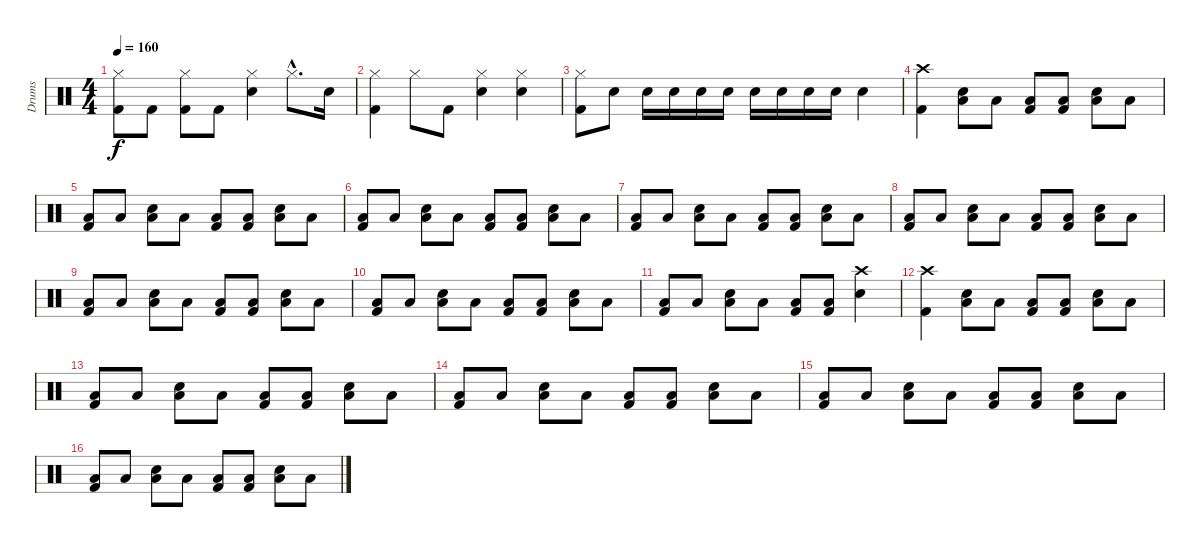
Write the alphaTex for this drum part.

\track ("Drums" "Drums") {instrument percussion}
\staff {score}
\articulation defaults
\ts (4 4)
\tempo 160
\clef neutral
\ks c
("Hi-Hat (closed)" "Kick (hit) 2").8{dy f} "Kick (hit) 2".8 ("Hi-Hat (closed)" "Kick (hit) 2").8 "Kick (hit) 2".8 ("Hi-Hat (closed)" "Snare (hit) 2").4 "Hi-Hat (closed)"{hac}.8{d} "Snare (hit) 2".16 |
("Hi-Hat (closed)" "Kick (hit) 2").4 "Hi-Hat (closed)".8 "Kick (hit) 2".8 ("Hi-Hat (closed)" "Snare (hit) 2").4 ("Hi-Hat (closed)" "Snare (hit) 2").4 |
("Hi-Hat (closed)" "Kick (hit) 2").8 "Snare (hit) 2".8 "Snare (hit) 2".16 "Snare (hit) 2".16 "Snare (hit) 2".16 "Snare (hit) 2".16 "Snare (hit) 2".16 "Snare (hit) 2".16 "Snare (hit) 2".16 "Snare (hit) 2".16 "Snare (hit) 2".4 |
("Crash high (hit)" "Kick (hit) 2").4 ("Snare (hit) 2" "Low Tom (hit)").8 "Low Tom (hit)".8 ("Low Tom (hit)" "Kick (hit) 2").8 ("Low Tom (hit)" "Kick (hit) 2").8 ("Snare (hit) 2" "Low Tom (hit)").8 "Low Tom (hit)".8 |
("Low Tom (hit)" "Kick (hit) 2").8 "Low Tom (hit)".8 ("Snare (hit) 2" "Low Tom (hit)").8 "Low Tom (hit)".8 ("Low Tom (hit)" "Kick (hit) 2").8 ("Low Tom (hit)" "Kick (hit) 2").8 ("Snare (hit) 2" "Low Tom (hit)").8 "Low Tom (hit)".8 |
("Low Tom (hit)" "Kick (hit) 2").8 "Low Tom (hit)".8 ("Snare (hit) 2" "Low Tom (hit)").8 "Low Tom (hit)".8 ("Low Tom (hit)" "Kick (hit) 2").8 ("Low Tom (hit)" "Kick (hit) 2").8 ("Snare (hit) 2" "Low Tom (hit)").8 "Low Tom (hit)".8 |
("Low Tom (hit)" "Kick (hit) 2").8 "Low Tom (hit)".8 ("Snare (hit) 2" "Low Tom (hit)").8 "Low Tom (hit)".8 ("Low Tom (hit)" "Kick (hit) 2").8 ("Low Tom (hit)" "Kick (hit) 2").8 ("Snare (hit) 2" "Low Tom (hit)").8 "Low Tom (hit)".8 |
("Low Tom (hit)" "Kick (hit) 2").8 "Low Tom (hit)".8 ("Snare (hit) 2" "Low Tom (hit)").8 "Low Tom (hit)".8 ("Low Tom (hit)" "Kick (hit) 2").8 ("Low Tom (hit)" "Kick (hit) 2").8 ("Snare (hit) 2" "Low Tom (hit)").8 "Low Tom (hit)".8 |
("Low Tom (hit)" "Kick (hit) 2").8 "Low Tom (hit)".8 ("Snare (hit) 2" "Low Tom (hit)").8 "Low Tom (hit)".8 ("Low Tom (hit)" "Kick (hit) 2").8 ("Low Tom (hit)" "Kick (hit) 2").8 ("Snare (hit) 2" "Low Tom (hit)").8 "Low Tom (hit)".8 |
("Low Tom (hit)" "Kick (hit) 2").8 "Low Tom (hit)".8 ("Snare (hit) 2" "Low Tom (hit)").8 "Low Tom (hit)".8 ("Low Tom (hit)" "Kick (hit) 2").8 ("Low Tom (hit)" "Kick (hit) 2").8 ("Snare (hit) 2" "Low Tom (hit)").8 "Low Tom (hit)".8 |
("Low Tom (hit)" "Kick (hit) 2").8 "Low Tom (hit)".8 ("Snare (hit) 2" "Low Tom (hit)").8 "Low Tom (hit)".8 ("Low Tom (hit)" "Kick (hit) 2").8 ("Low Tom (hit)" "Kick (hit) 2").8 ("Crash high (hit)" "Snare (hit) 2").4 |
("Crash high (hit)" "Kick (hit) 2").4 ("Snare (hit) 2" "Low Tom (hit)").8 "Low Tom (hit)".8 ("Low Tom (hit)" "Kick (hit) 2").8 ("Low Tom (hit)" "Kick (hit) 2").8 ("Snare (hit) 2" "Low Tom (hit)").8 "Low Tom (hit)".8 |
("Low Tom (hit)" "Kick (hit) 2").8 "Low Tom (hit)".8 ("Snare (hit) 2" "Low Tom (hit)").8 "Low Tom (hit)".8 ("Low Tom (hit)" "Kick (hit) 2").8 ("Low Tom (hit)" "Kick (hit) 2").8 ("Snare (hit) 2" "Low Tom (hit)").8 "Low Tom (hit)".8 |
("Low Tom (hit)" "Kick (hit) 2").8 "Low Tom (hit)".8 ("Snare (hit) 2" "Low Tom (hit)").8 "Low Tom (hit)".8 ("Low Tom (hit)" "Kick (hit) 2").8 ("Low Tom (hit)" "Kick (hit) 2").8 ("Snare (hit) 2" "Low Tom (hit)").8 "Low Tom (hit)".8 |
("Low Tom (hit)" "Kick (hit) 2").8 "Low Tom (hit)".8 ("Snare (hit) 2" "Low Tom (hit)").8 "Low Tom (hit)".8 ("Low Tom (hit)" "Kick (hit) 2").8 ("Low Tom (hit)" "Kick (hit) 2").8 ("Snare (hit) 2" "Low Tom (hit)").8 "Low Tom (hit)".8 |
("Low Tom (hit)" "Kick (hit) 2").8 "Low Tom (hit)".8 ("Snare (hit) 2" "Low Tom (hit)").8 "Low Tom (hit)".8 ("Low Tom (hit)" "Kick (hit) 2").8 ("Low Tom (hit)" "Kick (hit) 2").8 ("Snare (hit) 2" "Low Tom (hit)").8 "Low Tom (hit)".8
